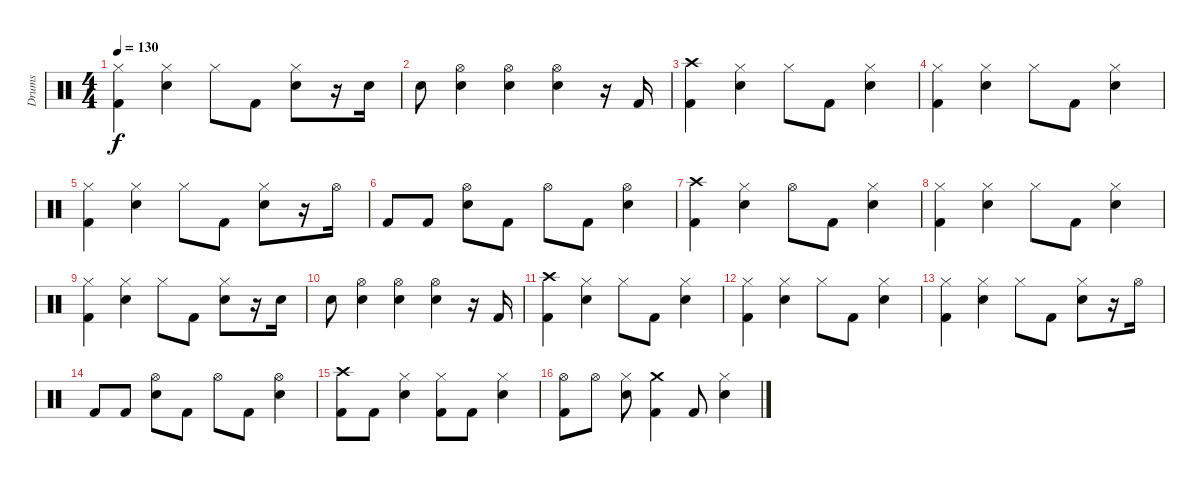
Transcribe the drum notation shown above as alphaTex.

\track ("Drums" "Drums") {instrument percussion}
\staff {score}
\articulation defaults
\ts (4 4)
\tempo 130
\clef neutral
\ks c
("Kick (hit) 2" "Hi-Hat (closed)").4{dy f} ("Snare (hit) 2" "Hi-Hat (closed)").4 "Hi-Hat (closed)".8 "Kick (hit) 2".8 ("Snare (hit) 2" "Hi-Hat (closed)").8 r.16 "Snare (hit) 2".16 |
"Snare (hit) 2".8 ("Snare (hit) 2" "Hi-Hat (open)").4 ("Snare (hit) 2" "Hi-Hat (open)").4 ("Snare (hit) 2" "Hi-Hat (open)").4 r.16 "Kick (hit) 2".16 |
("Kick (hit) 2" "Crash high (hit)").4 ("Snare (hit) 2" "Hi-Hat (closed)").4 "Hi-Hat (closed)".8 "Kick (hit) 2".8 ("Snare (hit) 2" "Hi-Hat (closed)").4 |
("Kick (hit) 2" "Hi-Hat (closed)").4 ("Snare (hit) 2" "Hi-Hat (closed)").4 "Hi-Hat (closed)".8 "Kick (hit) 2".8 ("Snare (hit) 2" "Hi-Hat (closed)").4 |
("Kick (hit) 2" "Hi-Hat (closed)").4 ("Snare (hit) 2" "Hi-Hat (closed)").4 "Hi-Hat (closed)".8 "Kick (hit) 2".8 ("Snare (hit) 2" "Hi-Hat (closed)").8 r.16 "Hi-Hat (open)".16 |
"Kick (hit) 2".8 "Kick (hit) 2".8 ("Snare (hit) 2" "Hi-Hat (open)").8 "Kick (hit) 2".8 "Hi-Hat (open)".8 "Kick (hit) 2".8 ("Snare (hit) 2" "Hi-Hat (open)").4 |
("Kick (hit) 2" "Crash high (hit)").4 ("Snare (hit) 2" "Hi-Hat (closed)").4 "Hi-Hat (open)".8 "Kick (hit) 2".8 ("Snare (hit) 2" "Hi-Hat (closed)").4 |
("Kick (hit) 2" "Hi-Hat (closed)").4 ("Snare (hit) 2" "Hi-Hat (closed)").4 "Hi-Hat (closed)".8 "Kick (hit) 2".8 ("Snare (hit) 2" "Hi-Hat (closed)").4 |
("Kick (hit) 2" "Hi-Hat (closed)").4 ("Snare (hit) 2" "Hi-Hat (closed)").4 "Hi-Hat (closed)".8 "Kick (hit) 2".8 ("Snare (hit) 2" "Hi-Hat (closed)").8 r.16 "Snare (hit) 2".16 |
"Snare (hit) 2".8 ("Snare (hit) 2" "Hi-Hat (open)").4 ("Snare (hit) 2" "Hi-Hat (open)").4 ("Snare (hit) 2" "Hi-Hat (open)").4 r.16 "Kick (hit) 2".16 |
("Kick (hit) 2" "Crash high (hit)").4 ("Snare (hit) 2" "Hi-Hat (closed)").4 "Hi-Hat (closed)".8 "Kick (hit) 2".8 ("Snare (hit) 2" "Hi-Hat (closed)").4 |
("Kick (hit) 2" "Hi-Hat (closed)").4 ("Snare (hit) 2" "Hi-Hat (closed)").4 "Hi-Hat (closed)".8 "Kick (hit) 2".8 ("Snare (hit) 2" "Hi-Hat (closed)").4 |
("Kick (hit) 2" "Hi-Hat (closed)").4 ("Snare (hit) 2" "Hi-Hat (closed)").4 "Hi-Hat (closed)".8 "Kick (hit) 2".8 ("Snare (hit) 2" "Hi-Hat (closed)").8 r.16 "Hi-Hat (open)".16 |
"Kick (hit) 2".8 "Kick (hit) 2".8 ("Snare (hit) 2" "Hi-Hat (open)").8 "Kick (hit) 2".8 "Hi-Hat (open)".8 "Kick (hit) 2".8 ("Snare (hit) 2" "Hi-Hat (open)").4 |
("Kick (hit) 2" "Crash high (hit)").8 "Kick (hit) 2".8 ("Snare (hit) 2" "Hi-Hat (closed)").4 ("Kick (hit) 2" "Hi-Hat (closed)").8 "Kick (hit) 2".8 ("Snare (hit) 2" "Hi-Hat (closed)").4 |
("Kick (hit) 2" "Hi-Hat (open)").8 "Hi-Hat (open)".8 ("Snare (hit) 2" "Hi-Hat (closed)").8 ("Kick (hit) 2" "Crash medium (hit)").4 "Kick (hit) 2".8 ("Snare (hit) 2" "Hi-Hat (closed)").4
